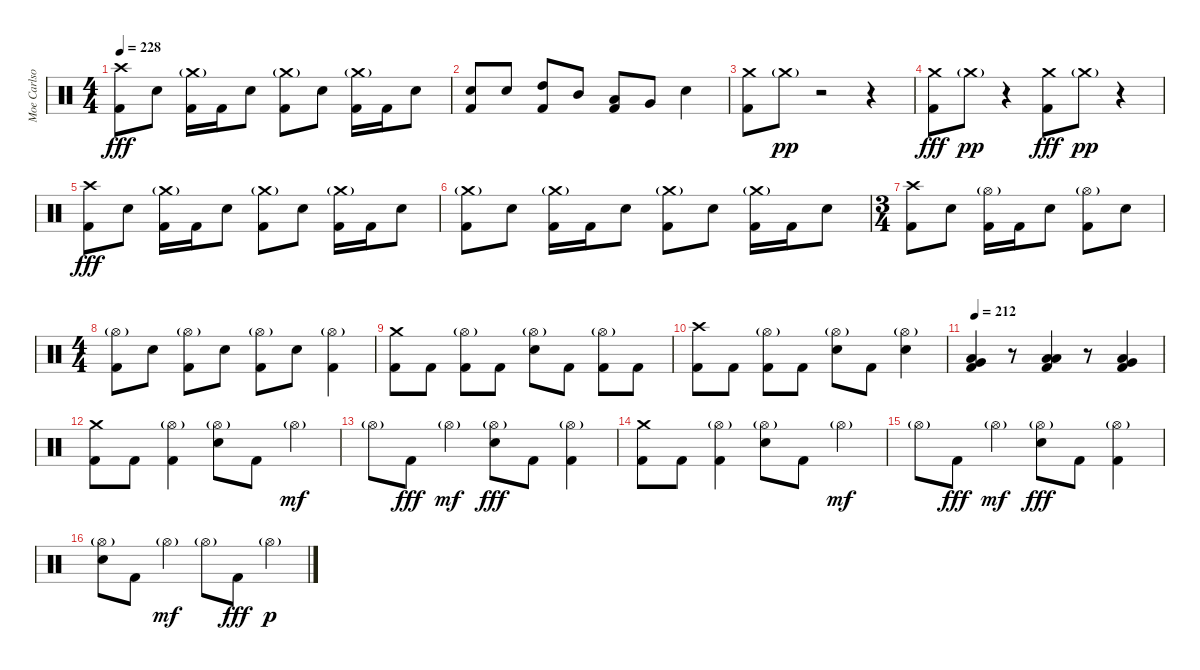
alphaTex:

\track ("Moe Carlson" "Moe Carlso") {instrument percussion}
\staff {score}
\articulation defaults
\ts (4 4)
\tempo 228
\clef neutral
\ks c
("Crash high (hit)" "Kick (hit) 2").8{dy fff} "Electric Snare (hit)".8 ("Crash medium (hit)"{g} "Kick (hit) 2").16 "Kick (hit) 2".16 "Electric Snare (hit)".8 ("Crash medium (hit)"{g} "Kick (hit) 2").8 "Electric Snare (hit)".8 ("Crash medium (hit)"{g} "Kick (hit) 2").16 "Kick (hit) 2".16 "Electric Snare (hit)".8 |
("Electric Snare (hit)" "Kick (hit) 2").8 "Electric Snare (hit)".8 ("High Tom (hit)" "Kick (hit) 2").8 "Mid Tom (hit)".8 ("Low Tom (hit)" "Kick (hit) 2").8 "Very Low Tom (hit)".8 "Electric Snare (hit)".4 |
("Crash medium (hit)" "Kick (hit) 2").8 "Crash medium (hit)"{g}.8{dy pp} r.2 r.4 |
("Crash medium (hit)" "Kick (hit) 2").8{dy fff} "Crash medium (hit)"{g}.8{dy pp} r.4 ("Crash medium (hit)" "Kick (hit) 2").8{dy fff} "Crash medium (hit)"{g}.8{dy pp} r.4 |
("Crash high (hit)" "Kick (hit) 2").8{dy fff} "Electric Snare (hit)".8 ("Crash medium (hit)"{g} "Kick (hit) 2").16 "Kick (hit) 2".16 "Electric Snare (hit)".8 ("Crash medium (hit)"{g} "Kick (hit) 2").8 "Electric Snare (hit)".8 ("Crash medium (hit)"{g} "Kick (hit) 2").16 "Kick (hit) 2".16 "Electric Snare (hit)".8 |
("Crash medium (hit)"{g} "Kick (hit) 2").8 "Electric Snare (hit)".8 ("Crash medium (hit)"{g} "Kick (hit) 2").16 "Kick (hit) 2".16 "Electric Snare (hit)".8 ("Crash medium (hit)"{g} "Kick (hit) 2").8 "Electric Snare (hit)".8 ("Crash medium (hit)"{g} "Kick (hit) 2").16 "Kick (hit) 2".16 "Electric Snare (hit)".8 |
\ts (3 4)
("Crash high (hit)" "Kick (hit) 2").8 "Electric Snare (hit)".8 ("Hi-Hat (open)"{g} "Kick (hit) 2").16 "Kick (hit) 2".16 "Electric Snare (hit)".8 ("Hi-Hat (open)"{g} "Kick (hit) 2").8 "Electric Snare (hit)".8 |
\ts (4 4)
("Hi-Hat (open)"{g} "Kick (hit) 2").8 "Electric Snare (hit)".8 ("Hi-Hat (open)"{g} "Kick (hit) 2").8 "Electric Snare (hit)".8 ("Hi-Hat (open)"{g} "Kick (hit) 2").8 "Electric Snare (hit)".8 ("Hi-Hat (open)"{g} "Kick (hit) 2").4 |
("Crash medium (hit)" "Kick (hit) 2").8 "Kick (hit) 2".8 ("Hi-Hat (open)"{g} "Kick (hit) 2").8 "Kick (hit) 2".8 ("Hi-Hat (open)"{g} "Electric Snare (hit)").8 "Kick (hit) 2".8 ("Hi-Hat (open)"{g} "Kick (hit) 2").8 "Kick (hit) 2".8 |
("Crash high (hit)" "Kick (hit) 2").8 "Kick (hit) 2".8 ("Hi-Hat (open)"{g} "Kick (hit) 2").8 "Kick (hit) 2".8 ("Hi-Hat (open)"{g} "Electric Snare (hit)").8 "Kick (hit) 2".8 ("Hi-Hat (open)"{g} "Electric Snare (hit)").4 |
\tempo 212
("Very Low Tom (hit)" "Low Floor Tom (hit)" "Kick (hit) 2").4 r.8 ("Low Tom (hit)" "Low Floor Tom (hit)" "Kick (hit) 2").4 r.8 ("Very Low Tom (hit)" "Low Floor Tom (hit)" "Kick (hit) 2").4 |
("Crash medium (hit)" "Kick (hit) 2").8 "Kick (hit) 2".8 ("Hi-Hat (open)"{g} "Kick (hit) 2").4 ("Hi-Hat (open)"{g} "Electric Snare (hit)").8 "Kick (hit) 2".8 "Hi-Hat (open)"{g}.4{dy mf} |
"Hi-Hat (open)"{g}.8 "Kick (hit) 2".8{dy fff} "Hi-Hat (open)"{g}.4{dy mf} ("Hi-Hat (open)"{g} "Electric Snare (hit)").8{dy fff} "Kick (hit) 2".8 ("Hi-Hat (open)"{g} "Kick (hit) 2").4 |
("Crash medium (hit)" "Kick (hit) 2").8 "Kick (hit) 2".8 ("Hi-Hat (open)"{g} "Kick (hit) 2").4 ("Hi-Hat (open)"{g} "Electric Snare (hit)").8 "Kick (hit) 2".8 "Hi-Hat (open)"{g}.4{dy mf} |
"Hi-Hat (open)"{g}.8 "Kick (hit) 2".8{dy fff} "Hi-Hat (open)"{g}.4{dy mf} ("Hi-Hat (open)"{g} "Electric Snare (hit)").8{dy fff} "Kick (hit) 2".8 ("Hi-Hat (open)"{g} "Kick (hit) 2").4 |
("Hi-Hat (open)"{g} "Electric Snare (hit)").8 "Kick (hit) 2".8 "Hi-Hat (open)"{g}.4{dy mf} "Hi-Hat (open)"{g}.8 "Kick (hit) 2".8{dy fff} "Hi-Hat (open)"{g}.4{dy p}
